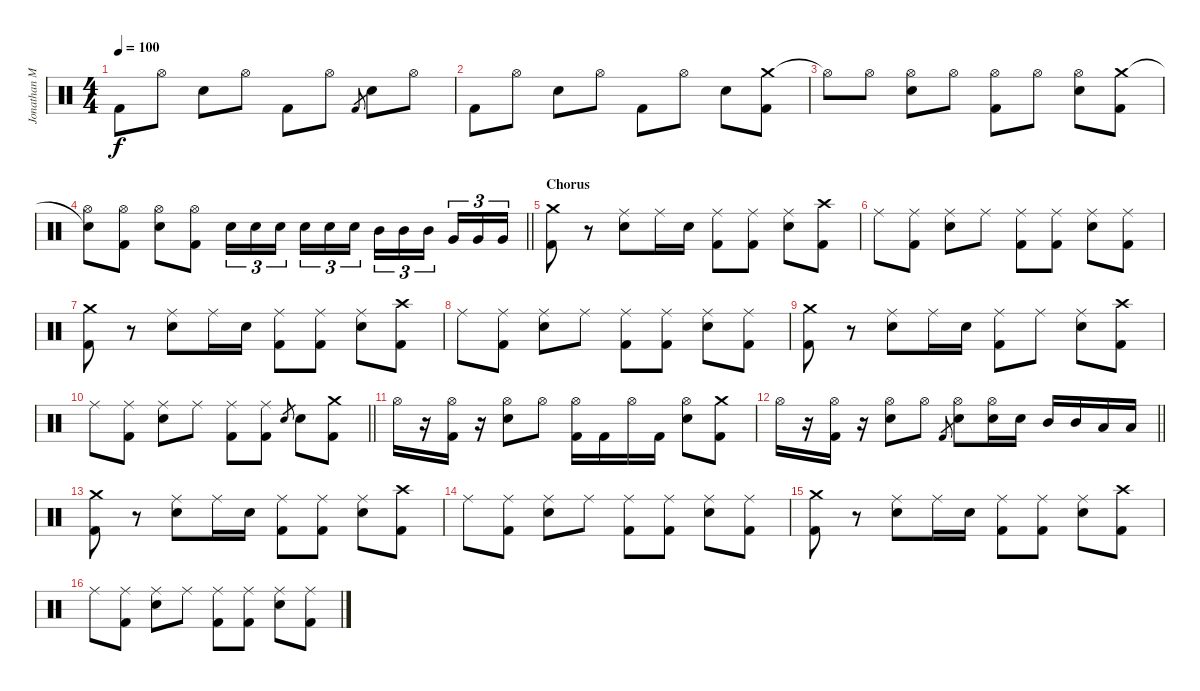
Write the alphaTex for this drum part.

\track ("Jonathan Mover (Studio Drummer)" "Jonathan M") {instrument percussion}
\staff {score}
\articulation defaults
\ts (4 4)
\tempo 100
\clef neutral
\ks c "Kick (hit) 2".8{dy f} "Hi-Hat (open)".8 "Snare (hit) 2".8 "Hi-Hat (open)".8 "Kick (hit) 2".8 "Hi-Hat (open)".8 "Kick (hit) 2".8{gr} "Snare (hit) 2".8 "Hi-Hat (open)".8
|
"Kick (hit) 2".8 "Hi-Hat (open)".8 "Snare (hit) 2".8 "Hi-Hat (open)".8 "Kick (hit) 2".8 "Hi-Hat (open)".8 "Snare (hit) 2".8 ("Crash medium (hit)" "Kick (hit) 2").8 |
"Hi-Hat (open)"{t}.8 "Hi-Hat (open)".8 ("Hi-Hat (open)" "Snare (hit) 2").8 "Hi-Hat (open)".8 ("Hi-Hat (open)" "Kick (hit) 2").8 "Hi-Hat (open)".8 ("Hi-Hat (open)" "Snare (hit) 2").8 ("Crash medium (hit)" "Kick (hit) 2").8 |
\barLineRight lightlight
("Snare (hit)"{t} "Hi-Hat (open)").8 ("Hi-Hat (open)" "Kick (hit) 2").8 ("Hi-Hat (open)" "Snare (hit) 2").8 ("Hi-Hat (open)" "Kick (hit) 2").8 "Snare (hit) 2".16{tu (3 2)} "Snare (hit) 2".16{tu (3 2)} "Snare (hit) 2".16{tu (3 2) beam splitsecondary} "Snare (hit) 2".16{tu (3 2)} "Snare (hit) 2".16{tu (3 2)} "Snare (hit) 2".16{tu (3 2)} "Mid Tom (hit)".16{tu (3 2)} "Mid Tom (hit)".16{tu (3 2)} "Mid Tom (hit)".16{tu (3 2) beam splitsecondary} "Very Low Tom (hit)".16{tu (3 2)} "Very Low Tom (hit)".16{tu (3 2)} "Very Low Tom (hit)".16{tu (3 2)} |
\section ("" "Chorus")
("Crash medium (hit)" "Kick (hit) 2").8 r.8 ("Ride (middle)" "Snare (hit) 2").8 "Ride (middle)".16 "Snare (hit) 2".16 ("Ride (middle)" "Kick (hit) 2").8 ("Ride (middle)" "Kick (hit) 2").8 ("Ride (middle)" "Snare (hit) 2").8 ("Crash high (hit)" "Kick (hit) 2").8 |
"Ride (middle)".8 ("Ride (middle)" "Kick (hit) 2").8 ("Ride (middle)" "Snare (hit) 2").8 "Ride (middle)".8 ("Ride (middle)" "Kick (hit) 2").8 ("Ride (middle)" "Kick (hit) 2").8 ("Ride (middle)" "Snare (hit) 2").8 ("Ride (middle)" "Kick (hit) 2").8 |
("Crash medium (hit)" "Kick (hit) 2").8 r.8 ("Ride (middle)" "Snare (hit) 2").8 "Ride (middle)".16 "Snare (hit) 2".16 ("Ride (middle)" "Kick (hit) 2").8 ("Ride (middle)" "Kick (hit) 2").8 ("Ride (middle)" "Snare (hit) 2").8 ("Crash high (hit)" "Kick (hit) 2").8 |
"Ride (middle)".8 ("Ride (middle)" "Kick (hit) 2").8 ("Ride (middle)" "Snare (hit) 2").8 "Ride (middle)".8 ("Ride (middle)" "Kick (hit) 2").8 ("Ride (middle)" "Kick (hit) 2").8 ("Ride (middle)" "Snare (hit) 2").8 ("Ride (middle)" "Kick (hit) 2").8 |
("Crash medium (hit)" "Kick (hit) 2").8 r.8 ("Ride (middle)" "Snare (hit) 2").8 "Ride (middle)".16 "Snare (hit) 2".16 ("Ride (middle)" "Kick (hit) 2").8 "Ride (middle)".8 ("Ride (middle)" "Snare (hit) 2").8 ("Crash high (hit)" "Kick (hit) 2").8 |
\barLineRight lightlight "Ride (middle)".8
("Ride (middle)" "Kick (hit) 2").8 ("Ride (middle)" "Snare (hit) 2").8 "Ride (middle)".8 ("Ride (middle)" "Kick (hit) 2").8 ("Ride (middle)" "Kick (hit) 2").8 "Snare (hit) 2".8{gr} "Snare (hit) 2".8 ("Crash medium (hit)" "Kick (hit) 2").8 |
"Hi-Hat (open)".16 r.16 ("Hi-Hat (open)" "Kick (hit) 2").16 r.16 ("Hi-Hat (open)" "Snare (hit) 2").8 "Hi-Hat (open)".8 ("Hi-Hat (open)" "Kick (hit) 2").16 "Kick (hit) 2".16 "Hi-Hat (open)".16 "Kick (hit) 2".16 ("Hi-Hat (open)" "Snare (hit) 2").8 ("Crash medium (hit)" "Kick (hit) 2").8 |
\barLineRight lightlight "Hi-Hat (open)".16
r.16 ("Hi-Hat (open)" "Kick (hit) 2").16 r.16 ("Hi-Hat (open)" "Snare (hit) 2").8 "Hi-Hat (open)".8 "Kick (hit) 2".8{gr} ("Hi-Hat (open)" "Snare (hit) 2").8 ("Hi-Hat (open)" "Snare (hit) 2").16 "Snare (hit) 2".16 "Mid Tom (hit)".16 "Mid Tom (hit)".16 "Low Tom (hit)".16 "Low Tom (hit)".16 |
("Crash medium (hit)" "Kick (hit) 2").8 r.8 ("Ride (middle)" "Snare (hit) 2").8 "Ride (middle)".16 "Snare (hit) 2".16 ("Ride (middle)" "Kick (hit) 2").8 ("Ride (middle)" "Kick (hit) 2").8 ("Ride (middle)" "Snare (hit) 2").8 ("Crash high (hit)" "Kick (hit) 2").8 |
"Ride (middle)".8 ("Ride (middle)" "Kick (hit) 2").8 ("Ride (middle)" "Snare (hit) 2").8 "Ride (middle)".8 ("Ride (middle)" "Kick (hit) 2").8 ("Ride (middle)" "Kick (hit) 2").8 ("Ride (middle)" "Snare (hit) 2").8 ("Ride (middle)" "Kick (hit) 2").8 |
("Crash medium (hit)" "Kick (hit) 2").8 r.8 ("Ride (middle)" "Snare (hit) 2").8 "Ride (middle)".16 "Snare (hit) 2".16 ("Ride (middle)" "Kick (hit) 2").8 ("Ride (middle)" "Kick (hit) 2").8 ("Ride (middle)" "Snare (hit) 2").8 ("Crash high (hit)" "Kick (hit) 2").8 |
"Ride (middle)".8 ("Ride (middle)" "Kick (hit) 2").8 ("Ride (middle)" "Snare (hit) 2").8 "Ride (middle)".8 ("Ride (middle)" "Kick (hit) 2").8 ("Ride (middle)" "Kick (hit) 2").8 ("Ride (middle)" "Snare (hit) 2").8 ("Ride (middle)" "Kick (hit) 2").8
